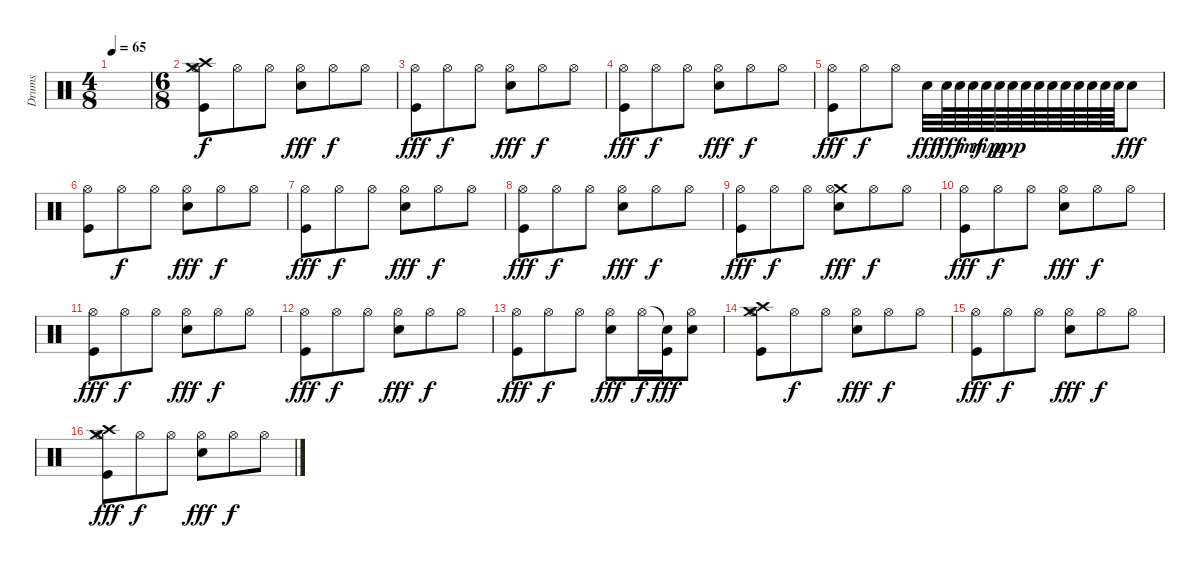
\track ("Drums" "Drums") {instrument percussion}
\staff {score}
\articulation defaults
\ts (4 8)
\tempo 65
\clef neutral
\ks c
|
\ts (6 8)
("Crash medium (hit)" "Crash high (hit)" "Hi-Hat (open)" "Kick (hit)").8 "Hi-Hat (open)".8{dy f} "Hi-Hat (open)".8 ("Hi-Hat (open)" "Snare (hit) 2").8{dy fff} "Hi-Hat (open)".8{dy f} "Hi-Hat (open)".8 |
("Hi-Hat (open)" "Kick (hit)").8{dy fff} "Hi-Hat (open)".8{dy f} "Hi-Hat (open)".8 ("Hi-Hat (open)" "Snare (hit) 2").8{dy fff} "Hi-Hat (open)".8{dy f} "Hi-Hat (open)".8 |
("Hi-Hat (open)" "Kick (hit)").8{dy fff} "Hi-Hat (open)".8{dy f} "Hi-Hat (open)".8 ("Hi-Hat (open)" "Snare (hit) 2").8{dy fff} "Hi-Hat (open)".8{dy f} "Hi-Hat (open)".8 |
("Hi-Hat (open)" "Kick (hit)").8{dy fff} "Hi-Hat (open)".8{dy f} "Hi-Hat (open)".8 "Snare (hit) 2".32{dy fff} "Snare (hit) 2".64{dy ff} "Snare (hit) 2".64{dy f} "Snare (hit) 2".64{dy mf} "Snare (hit) 2".64{dy mp} "Snare (hit) 2".64{dy p} "Snare (hit) 2".64{dy pp} "Snare (hit) 2".64 "Snare (hit) 2".64 "Snare (hit) 2".64 "Snare (hit) 2".64 "Snare (hit) 2".64 "Snare (hit) 2".64 "Snare (hit) 2".64 "Snare (hit) 2".64 "Snare (hit) 2".8{dy fff} |
("Hi-Hat (open)" "Kick (hit)").8 "Hi-Hat (open)".8{dy f} "Hi-Hat (open)".8 ("Hi-Hat (open)" "Snare (hit) 2").8{dy fff} "Hi-Hat (open)".8{dy f} "Hi-Hat (open)".8 |
("Hi-Hat (open)" "Kick (hit)").8{dy fff} "Hi-Hat (open)".8{dy f} "Hi-Hat (open)".8 ("Hi-Hat (open)" "Snare (hit) 2").8{dy fff} "Hi-Hat (open)".8{dy f} "Hi-Hat (open)".8 |
("Hi-Hat (open)" "Kick (hit)").8{dy fff} "Hi-Hat (open)".8{dy f} "Hi-Hat (open)".8 ("Hi-Hat (open)" "Snare (hit) 2").8{dy fff} "Hi-Hat (open)".8{dy f} "Hi-Hat (open)".8 |
("Hi-Hat (open)" "Kick (hit)").8{dy fff} "Hi-Hat (open)".8{dy f} "Hi-Hat (open)".8 ("Crash medium (hit)" "Hi-Hat (open)" "Snare (hit) 2").8{dy fff} "Hi-Hat (open)".8{dy f} "Hi-Hat (open)".8 |
("Hi-Hat (open)" "Kick (hit)").8{dy fff} "Hi-Hat (open)".8{dy f} "Hi-Hat (open)".8 ("Hi-Hat (open)" "Snare (hit) 2").8{dy fff} "Hi-Hat (open)".8{dy f} "Hi-Hat (open)".8 |
("Hi-Hat (open)" "Kick (hit)").8{dy fff} "Hi-Hat (open)".8{dy f} "Hi-Hat (open)".8 ("Hi-Hat (open)" "Snare (hit) 2").8{dy fff} "Hi-Hat (open)".8{dy f} "Hi-Hat (open)".8 |
("Hi-Hat (open)" "Kick (hit)").8{dy fff} "Hi-Hat (open)".8{dy f} "Hi-Hat (open)".8 ("Hi-Hat (open)" "Snare (hit) 2").8{dy fff} "Hi-Hat (open)".8{dy f} "Hi-Hat (open)".8 |
("Hi-Hat (open)" "Kick (hit)").8{dy fff} "Hi-Hat (open)".8{dy f} "Hi-Hat (open)".8 ("Hi-Hat (open)" "Snare (hit) 2").8{dy fff} "Hi-Hat (open)".16{dy f} ("Snare (hit)"{t} "Kick (hit)").16{dy fff} ("Hi-Hat (open)" "Snare (hit) 2").8 |
("Crash medium (hit)" "Crash high (hit)" "Hi-Hat (open)" "Kick (hit)").8 "Hi-Hat (open)".8{dy f} "Hi-Hat (open)".8 ("Hi-Hat (open)" "Snare (hit) 2").8{dy fff} "Hi-Hat (open)".8{dy f} "Hi-Hat (open)".8 |
("Hi-Hat (open)" "Kick (hit)").8{dy fff} "Hi-Hat (open)".8{dy f} "Hi-Hat (open)".8 ("Hi-Hat (open)" "Snare (hit) 2").8{dy fff} "Hi-Hat (open)".8{dy f} "Hi-Hat (open)".8 |
("Crash medium (hit)" "Crash high (hit)" "Hi-Hat (open)" "Kick (hit)").8{dy fff} "Hi-Hat (open)".8{dy f} "Hi-Hat (open)".8 ("Hi-Hat (open)" "Snare (hit) 2").8{dy fff} "Hi-Hat (open)".8{dy f} "Hi-Hat (open)".8
